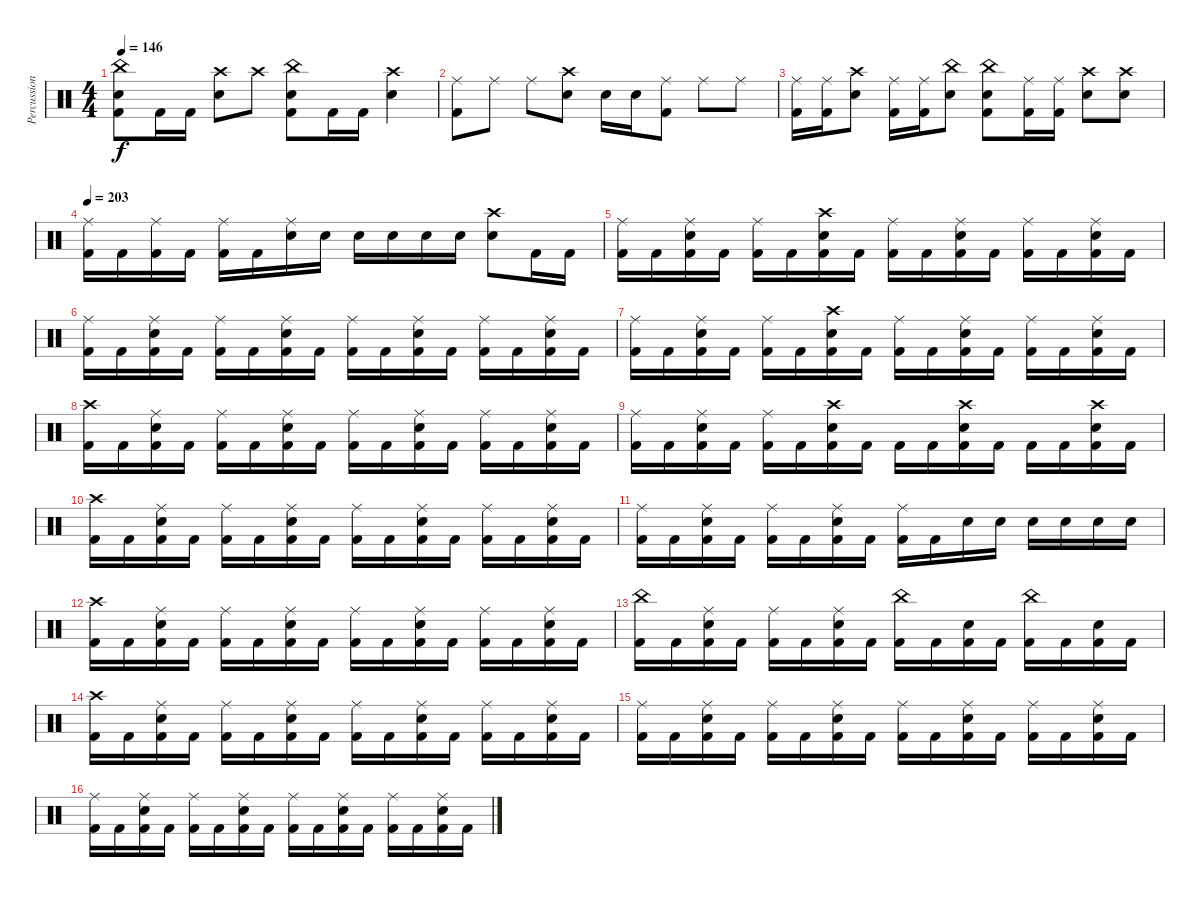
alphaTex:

\track ("Percussion" "Percussion") {instrument percussion}
\staff {score}
\articulation defaults
\ts (4 4)
\tempo 146
\clef neutral
\ks c
("China (hit)" "Snare (hit) 2" "Kick (hit) 2").8{dy f} "Kick (hit) 2".16 "Kick (hit) 2".16 ("Crash high (hit)" "Snare (hit) 2").8 "Crash high (hit)".8 ("China (hit)" "Snare (hit) 2" "Kick (hit) 2").8 "Kick (hit) 2".16 "Kick (hit) 2".16 ("Crash high (hit)" "Snare (hit) 2").4 |
("Ride (middle)" "Kick (hit) 2").8 "Ride (middle)".8 "Ride (middle)".8 ("Crash high (hit)" "Snare (hit) 2").8 "Snare (hit) 2".16 "Snare (hit) 2".16 ("Ride (middle)" "Kick (hit) 2").8 "Ride (middle)".8 "Ride (middle)".8 |
("Ride (middle)" "Kick (hit) 2").16 ("Ride (middle)" "Kick (hit) 2").16 ("Crash high (hit)" "Snare (hit) 2").8 ("Ride (middle)" "Kick (hit) 2").16 ("Ride (middle)" "Kick (hit) 2").16 ("China (hit)" "Snare (hit) 2").8 ("China (hit)" "Snare (hit) 2" "Kick (hit) 2").8 ("Ride (middle)" "Kick (hit) 2").16 ("Ride (middle)" "Kick (hit) 2").16 ("Crash high (hit)" "Snare (hit) 2").8 ("Crash high (hit)" "Snare (hit) 2").8 |
\tempo 203
("Ride (middle)" "Kick (hit) 2").16 "Kick (hit) 2".16 ("Ride (middle)" "Kick (hit) 2").16 "Kick (hit) 2".16 ("Ride (middle)" "Kick (hit) 2").16 "Kick (hit) 2".16 ("Ride (middle)" "Snare (hit) 2").16 "Snare (hit) 2".16 "Snare (hit) 2".16 "Snare (hit) 2".16 "Snare (hit) 2".16 "Snare (hit) 2".16 ("Crash high (hit)" "Snare (hit) 2").8 "Kick (hit) 2".16 "Kick (hit) 2".16 |
("Ride (middle)" "Kick (hit) 2").16 "Kick (hit) 2".16 ("Ride (middle)" "Snare (hit) 2" "Kick (hit) 2").16 "Kick (hit) 2".16 ("Ride (middle)" "Kick (hit) 2").16 "Kick (hit) 2".16 ("Crash high (hit)" "Snare (hit) 2" "Kick (hit) 2").16 "Kick (hit) 2".16 ("Ride (middle)" "Kick (hit) 2").16 "Kick (hit) 2".16 ("Ride (middle)" "Snare (hit) 2" "Kick (hit) 2").16 "Kick (hit) 2".16 ("Ride (middle)" "Kick (hit) 2").16 "Kick (hit) 2".16 ("Ride (middle)" "Snare (hit) 2" "Kick (hit) 2").16 "Kick (hit) 2".16 |
("Ride (middle)" "Kick (hit) 2").16 "Kick (hit) 2".16 ("Ride (middle)" "Snare (hit) 2" "Kick (hit) 2").16 "Kick (hit) 2".16 ("Ride (middle)" "Kick (hit) 2").16 "Kick (hit) 2".16 ("Ride (middle)" "Snare (hit) 2" "Kick (hit) 2").16 "Kick (hit) 2".16 ("Ride (middle)" "Kick (hit) 2").16 "Kick (hit) 2".16 ("Ride (middle)" "Snare (hit) 2" "Kick (hit) 2").16 "Kick (hit) 2".16 ("Ride (middle)" "Kick (hit) 2").16 "Kick (hit) 2".16 ("Ride (middle)" "Snare (hit) 2" "Kick (hit) 2").16 "Kick (hit) 2".16 |
("Ride (middle)" "Kick (hit) 2").16 "Kick (hit) 2".16 ("Ride (middle)" "Snare (hit) 2" "Kick (hit) 2").16 "Kick (hit) 2".16 ("Ride (middle)" "Kick (hit) 2").16 "Kick (hit) 2".16 ("Crash high (hit)" "Snare (hit) 2" "Kick (hit) 2").16 "Kick (hit) 2".16 ("Ride (middle)" "Kick (hit) 2").16 "Kick (hit) 2".16 ("Ride (middle)" "Snare (hit) 2" "Kick (hit) 2").16 "Kick (hit) 2".16 ("Ride (middle)" "Kick (hit) 2").16 "Kick (hit) 2".16 ("Ride (middle)" "Snare (hit) 2" "Kick (hit) 2").16 "Kick (hit) 2".16 |
("Crash high (hit)" "Kick (hit) 2").16 "Kick (hit) 2".16 ("Ride (middle)" "Snare (hit) 2" "Kick (hit) 2").16 "Kick (hit) 2".16 ("Ride (middle)" "Kick (hit) 2").16 "Kick (hit) 2".16 ("Ride (middle)" "Snare (hit) 2" "Kick (hit) 2").16 "Kick (hit) 2".16 ("Ride (middle)" "Kick (hit) 2").16 "Kick (hit) 2".16 ("Ride (middle)" "Snare (hit) 2" "Kick (hit) 2").16 "Kick (hit) 2".16 ("Ride (middle)" "Kick (hit) 2").16 "Kick (hit) 2".16 ("Ride (middle)" "Snare (hit) 2" "Kick (hit) 2").16 "Kick (hit) 2".16 |
("Ride (middle)" "Kick (hit) 2").16 "Kick (hit) 2".16 ("Ride (middle)" "Snare (hit) 2" "Kick (hit) 2").16 "Kick (hit) 2".16 ("Ride (middle)" "Kick (hit) 2").16 "Kick (hit) 2".16 ("Crash high (hit)" "Snare (hit) 2" "Kick (hit) 2").16 "Kick (hit) 2".16 "Kick (hit) 2".16 "Kick (hit) 2".16 ("Crash high (hit)" "Snare (hit) 2" "Kick (hit) 2").16 "Kick (hit) 2".16 "Kick (hit) 2".16 "Kick (hit) 2".16 ("Crash high (hit)" "Snare (hit) 2" "Kick (hit) 2").16 "Kick (hit) 2".16 |
("Crash high (hit)" "Kick (hit) 2").16 "Kick (hit) 2".16 ("Ride (middle)" "Snare (hit) 2" "Kick (hit) 2").16 "Kick (hit) 2".16 ("Ride (middle)" "Kick (hit) 2").16 "Kick (hit) 2".16 ("Ride (middle)" "Snare (hit) 2" "Kick (hit) 2").16 "Kick (hit) 2".16 ("Ride (middle)" "Kick (hit) 2").16 "Kick (hit) 2".16 ("Ride (middle)" "Snare (hit) 2" "Kick (hit) 2").16 "Kick (hit) 2".16 ("Ride (middle)" "Kick (hit) 2").16 "Kick (hit) 2".16 ("Ride (middle)" "Snare (hit) 2" "Kick (hit) 2").16 "Kick (hit) 2".16 |
("Ride (middle)" "Kick (hit) 2").16 "Kick (hit) 2".16 ("Ride (middle)" "Snare (hit) 2" "Kick (hit) 2").16 "Kick (hit) 2".16 ("Ride (middle)" "Kick (hit) 2").16 "Kick (hit) 2".16 ("Ride (middle)" "Snare (hit) 2" "Kick (hit) 2").16 "Kick (hit) 2".16 ("Ride (middle)" "Kick (hit) 2").16 "Kick (hit) 2".16 "Snare (hit) 2".16 "Snare (hit) 2".16 "Snare (hit) 2".16 "Snare (hit) 2".16 "Snare (hit) 2".16 "Snare (hit) 2".16 |
("Crash high (hit)" "Kick (hit) 2").16 "Kick (hit) 2".16 ("Ride (middle)" "Snare (hit) 2" "Kick (hit) 2").16 "Kick (hit) 2".16 ("Ride (middle)" "Kick (hit) 2").16 "Kick (hit) 2".16 ("Ride (middle)" "Snare (hit) 2" "Kick (hit) 2").16 "Kick (hit) 2".16 ("Ride (middle)" "Kick (hit) 2").16 "Kick (hit) 2".16 ("Ride (middle)" "Snare (hit) 2" "Kick (hit) 2").16 "Kick (hit) 2".16 ("Ride (middle)" "Kick (hit) 2").16 "Kick (hit) 2".16 ("Ride (middle)" "Snare (hit) 2" "Kick (hit) 2").16 "Kick (hit) 2".16 |
("China (hit)" "Kick (hit) 2").16 "Kick (hit) 2".16 ("Ride (middle)" "Snare (hit) 2" "Kick (hit) 2").16 "Kick (hit) 2".16 ("Ride (middle)" "Kick (hit) 2").16 "Kick (hit) 2".16 ("Ride (middle)" "Snare (hit) 2" "Kick (hit) 2").16 "Kick (hit) 2".16 ("China (hit)" "Kick (hit) 2").16 "Kick (hit) 2".16 ("Snare (hit) 2" "Kick (hit) 2").16 "Kick (hit) 2".16 ("China (hit)" "Kick (hit) 2").16 "Kick (hit) 2".16 ("Snare (hit) 2" "Kick (hit) 2").16 "Kick (hit) 2".16 |
("Crash high (hit)" "Kick (hit) 2").16 "Kick (hit) 2".16 ("Ride (middle)" "Snare (hit) 2" "Kick (hit) 2").16 "Kick (hit) 2".16 ("Ride (middle)" "Kick (hit) 2").16 "Kick (hit) 2".16 ("Ride (middle)" "Snare (hit) 2" "Kick (hit) 2").16 "Kick (hit) 2".16 ("Ride (middle)" "Kick (hit) 2").16 "Kick (hit) 2".16 ("Ride (middle)" "Snare (hit) 2" "Kick (hit) 2").16 "Kick (hit) 2".16 ("Ride (middle)" "Kick (hit) 2").16 "Kick (hit) 2".16 ("Ride (middle)" "Snare (hit) 2" "Kick (hit) 2").16 "Kick (hit) 2".16 |
("Ride (middle)" "Kick (hit) 2").16 "Kick (hit) 2".16 ("Ride (middle)" "Snare (hit) 2" "Kick (hit) 2").16 "Kick (hit) 2".16 ("Ride (middle)" "Kick (hit) 2").16 "Kick (hit) 2".16 ("Ride (middle)" "Snare (hit) 2" "Kick (hit) 2").16 "Kick (hit) 2".16 ("Ride (middle)" "Kick (hit) 2").16 "Kick (hit) 2".16 ("Ride (middle)" "Snare (hit) 2" "Kick (hit) 2").16 "Kick (hit) 2".16 ("Ride (middle)" "Kick (hit) 2").16 "Kick (hit) 2".16 ("Ride (middle)" "Snare (hit) 2" "Kick (hit) 2").16 "Kick (hit) 2".16 |
("Ride (middle)" "Kick (hit) 2").16 "Kick (hit) 2".16 ("Ride (middle)" "Snare (hit) 2" "Kick (hit) 2").16 "Kick (hit) 2".16 ("Ride (middle)" "Kick (hit) 2").16 "Kick (hit) 2".16 ("Ride (middle)" "Snare (hit) 2" "Kick (hit) 2").16 "Kick (hit) 2".16 ("Ride (middle)" "Kick (hit) 2").16 "Kick (hit) 2".16 ("Ride (middle)" "Snare (hit) 2" "Kick (hit) 2").16 "Kick (hit) 2".16 ("Ride (middle)" "Kick (hit) 2").16 "Kick (hit) 2".16 ("Ride (middle)" "Snare (hit) 2" "Kick (hit) 2").16 "Kick (hit) 2".16
